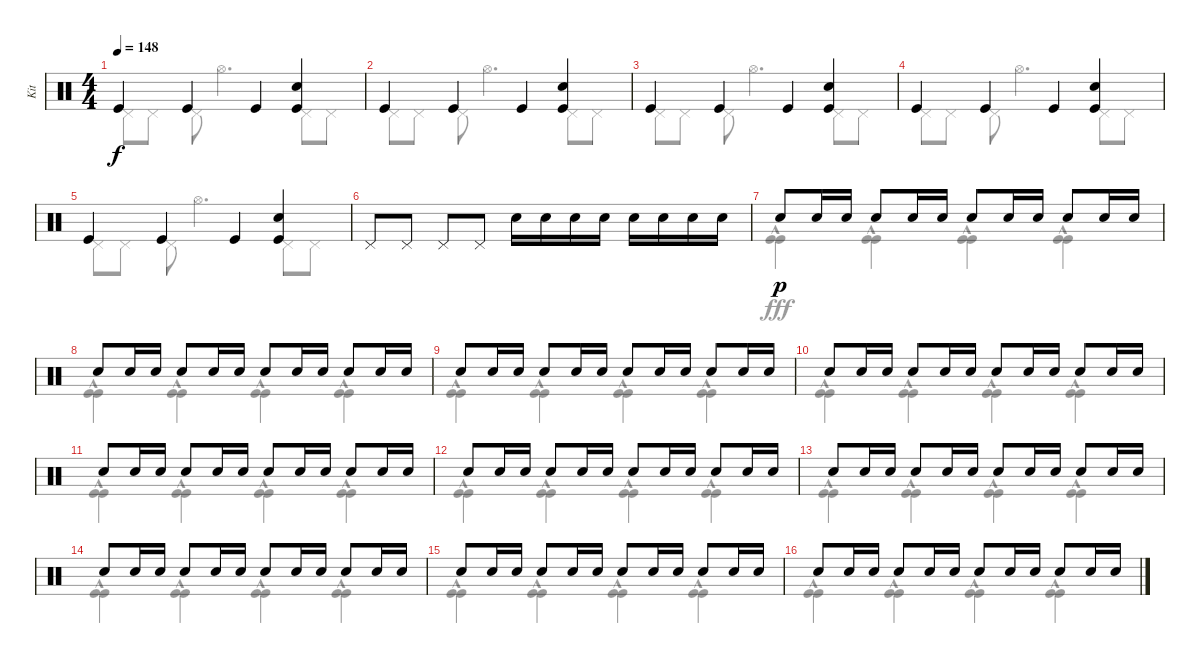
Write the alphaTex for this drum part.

\track ("Kit" "Kit") {instrument percussion}
\staff {score}
\articulation defaults
\voice
\ts (4 4)
\tempo 148
\clef neutral
\ks c "Kick (hit)".4{dy f} "Kick (hit)".4 "Kick (hit)".4
("Snare (hit) 2" "Kick (hit)").4 |
"Kick (hit)".4 "Kick (hit)".4 "Kick (hit)".4 ("Snare (hit) 2" "Kick (hit)").4 |
"Kick (hit)".4 "Kick (hit)".4 "Kick (hit)".4 ("Snare (hit) 2" "Kick (hit)").4 |
"Kick (hit)".4 "Kick (hit)".4 "Kick (hit)".4 ("Snare (hit) 2" "Kick (hit)").4 |
"Kick (hit)".4 "Kick (hit)".4 "Kick (hit)".4 ("Snare (hit) 2" "Kick (hit)").4 |
"Pedal Hi-Hat (hit)".8 "Pedal Hi-Hat (hit)".8 "Pedal Hi-Hat (hit)".8 "Pedal Hi-Hat (hit)".8 "Snare (hit) 2".16 "Snare (hit) 2".16 "Snare (hit) 2".16 "Snare (hit) 2".16 "Snare (hit) 2".16 "Snare (hit) 2".16 "Snare (hit) 2".16 "Snare (hit) 2".16 |
"Snare (hit) 2".8{dy p volume 6} "Snare (hit) 2".16 "Snare (hit) 2".16 "Snare (hit) 2".8 "Snare (hit) 2".16 "Snare (hit) 2".16 "Snare (hit) 2".8 "Snare (hit) 2".16 "Snare (hit) 2".16 "Snare (hit) 2".8 "Snare (hit) 2".16 "Snare (hit) 2".16 |
"Snare (hit) 2".8 "Snare (hit) 2".16 "Snare (hit) 2".16 "Snare (hit) 2".8 "Snare (hit) 2".16 "Snare (hit) 2".16 "Snare (hit) 2".8 "Snare (hit) 2".16 "Snare (hit) 2".16 "Snare (hit) 2".8 "Snare (hit) 2".16 "Snare (hit) 2".16 |
"Snare (hit) 2".8 "Snare (hit) 2".16 "Snare (hit) 2".16 "Snare (hit) 2".8 "Snare (hit) 2".16 "Snare (hit) 2".16 "Snare (hit) 2".8 "Snare (hit) 2".16 "Snare (hit) 2".16 "Snare (hit) 2".8 "Snare (hit) 2".16 "Snare (hit) 2".16 |
"Snare (hit) 2".8{volume 6} "Snare (hit) 2".16 "Snare (hit) 2".16 "Snare (hit) 2".8 "Snare (hit) 2".16 "Snare (hit) 2".16 "Snare (hit) 2".8 "Snare (hit) 2".16 "Snare (hit) 2".16 "Snare (hit) 2".8 "Snare (hit) 2".16 "Snare (hit) 2".16 |
"Snare (hit) 2".8 "Snare (hit) 2".16 "Snare (hit) 2".16 "Snare (hit) 2".8 "Snare (hit) 2".16 "Snare (hit) 2".16 "Snare (hit) 2".8 "Snare (hit) 2".16 "Snare (hit) 2".16 "Snare (hit) 2".8 "Snare (hit) 2".16 "Snare (hit) 2".16 |
"Snare (hit) 2".8 "Snare (hit) 2".16 "Snare (hit) 2".16 "Snare (hit) 2".8 "Snare (hit) 2".16 "Snare (hit) 2".16 "Snare (hit) 2".8 "Snare (hit) 2".16 "Snare (hit) 2".16 "Snare (hit) 2".8 "Snare (hit) 2".16 "Snare (hit) 2".16 |
"Snare (hit) 2".8 "Snare (hit) 2".16 "Snare (hit) 2".16 "Snare (hit) 2".8 "Snare (hit) 2".16 "Snare (hit) 2".16 "Snare (hit) 2".8 "Snare (hit) 2".16 "Snare (hit) 2".16 "Snare (hit) 2".8 "Snare (hit) 2".16 "Snare (hit) 2".16 |
"Snare (hit) 2".8 "Snare (hit) 2".16 "Snare (hit) 2".16 "Snare (hit) 2".8 "Snare (hit) 2".16 "Snare (hit) 2".16 "Snare (hit) 2".8 "Snare (hit) 2".16 "Snare (hit) 2".16 "Snare (hit) 2".8 "Snare (hit) 2".16 "Snare (hit) 2".16 |
"Snare (hit) 2".8{volume 6} "Snare (hit) 2".16 "Snare (hit) 2".16 "Snare (hit) 2".8 "Snare (hit) 2".16 "Snare (hit) 2".16 "Snare (hit) 2".8 "Snare (hit) 2".16 "Snare (hit) 2".16 "Snare (hit) 2".8 "Snare (hit) 2".16 "Snare (hit) 2".16 |
"Snare (hit) 2".8 "Snare (hit) 2".16 "Snare (hit) 2".16 "Snare (hit) 2".8 "Snare (hit) 2".16 "Snare (hit) 2".16 "Snare (hit) 2".8 "Snare (hit) 2".16 "Snare (hit) 2".16 "Snare (hit) 2".8 "Snare (hit) 2".16 "Snare (hit) 2".16
\voice
\clef neutral
\ottava regular
\simile none
\ks c "Pedal Hi-Hat (hit)".8{dy f} "Pedal Hi-Hat (hit)".8 "Pedal Hi-Hat (hit)".8 "Hi-Hat (open)".4{d} "Pedal Hi-Hat (hit)".8 "Pedal Hi-Hat (hit)".8
|
"Pedal Hi-Hat (hit)".8 "Pedal Hi-Hat (hit)".8 "Pedal Hi-Hat (hit)".8 "Hi-Hat (open)".4{d} "Pedal Hi-Hat (hit)".8 "Pedal Hi-Hat (hit)".8 |
"Pedal Hi-Hat (hit)".8 "Pedal Hi-Hat (hit)".8 "Pedal Hi-Hat (hit)".8 "Hi-Hat (open)".4{d} "Pedal Hi-Hat (hit)".8 "Pedal Hi-Hat (hit)".8 |
"Pedal Hi-Hat (hit)".8 "Pedal Hi-Hat (hit)".8 "Pedal Hi-Hat (hit)".8 "Hi-Hat (open)".4{d} "Pedal Hi-Hat (hit)".8 "Pedal Hi-Hat (hit)".8 |
"Pedal Hi-Hat (hit)".8 "Pedal Hi-Hat (hit)".8 "Pedal Hi-Hat (hit)".8 "Hi-Hat (open)".4{d} "Pedal Hi-Hat (hit)".8 "Pedal Hi-Hat (hit)".8 |
|
("Kick (hit)" "Kick (hit)"{hac}).4{dy fff} ("Kick (hit)" "Kick (hit)"{hac}).4 ("Kick (hit)" "Kick (hit)"{hac}).4 ("Kick (hit)" "Kick (hit)"{hac}).4 |
("Kick (hit)" "Kick (hit)"{hac}).4 ("Kick (hit)" "Kick (hit)"{hac}).4 ("Kick (hit)" "Kick (hit)"{hac}).4 ("Kick (hit)" "Kick (hit)"{hac}).4 |
("Kick (hit)" "Kick (hit)"{hac}).4 ("Kick (hit)" "Kick (hit)"{hac}).4 ("Kick (hit)" "Kick (hit)"{hac}).4 ("Kick (hit)" "Kick (hit)"{hac}).4 |
("Kick (hit)" "Kick (hit)"{hac}).4 ("Kick (hit)" "Kick (hit)"{hac}).4 ("Kick (hit)" "Kick (hit)"{hac}).4 ("Kick (hit)" "Kick (hit)"{hac}).4 |
("Kick (hit)" "Kick (hit)"{hac}).4 ("Kick (hit)" "Kick (hit)"{hac}).4 ("Kick (hit)" "Kick (hit)"{hac}).4 ("Kick (hit)" "Kick (hit)"{hac}).4 |
("Kick (hit)" "Kick (hit)"{hac}).4 ("Kick (hit)" "Kick (hit)"{hac}).4 ("Kick (hit)" "Kick (hit)"{hac}).4 ("Kick (hit)" "Kick (hit)"{hac}).4 |
("Kick (hit)" "Kick (hit)"{hac}).4 ("Kick (hit)" "Kick (hit)"{hac}).4 ("Kick (hit)" "Kick (hit)"{hac}).4 ("Kick (hit)" "Kick (hit)"{hac}).4 |
("Kick (hit)" "Kick (hit)"{hac}).4 ("Kick (hit)" "Kick (hit)"{hac}).4 ("Kick (hit)" "Kick (hit)"{hac}).4 ("Kick (hit)" "Kick (hit)"{hac}).4 |
("Kick (hit)" "Kick (hit)"{hac}).4 ("Kick (hit)" "Kick (hit)"{hac}).4 ("Kick (hit)" "Kick (hit)"{hac}).4 ("Kick (hit)" "Kick (hit)"{hac}).4 |
("Kick (hit)" "Kick (hit)"{hac}).4 ("Kick (hit)" "Kick (hit)"{hac}).4 ("Kick (hit)" "Kick (hit)"{hac}).4 ("Kick (hit)" "Kick (hit)"{hac}).4
